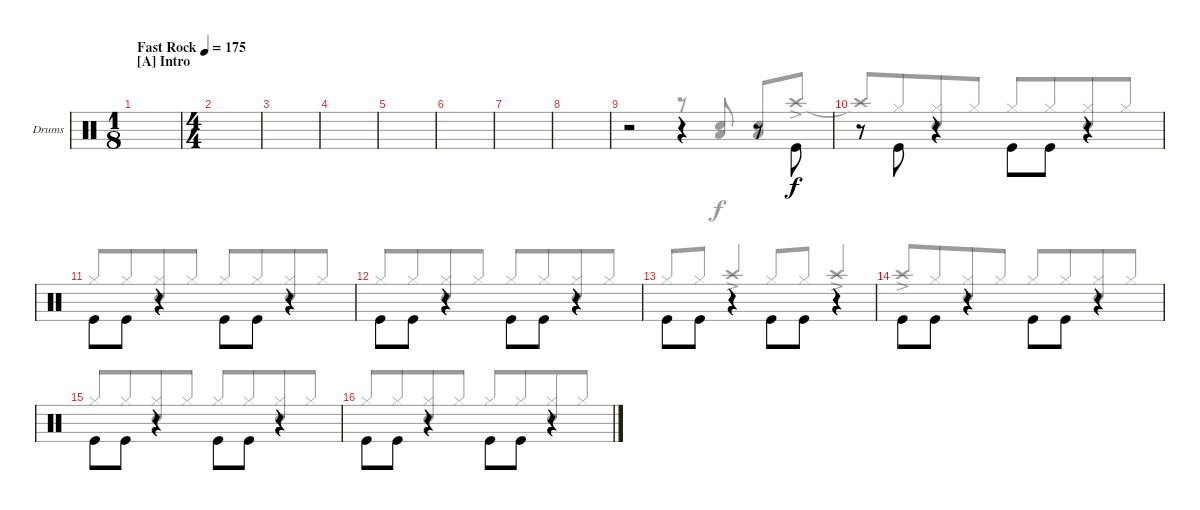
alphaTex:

\defaultSystemsLayout 4
\bracketExtendMode groupsimilarinstruments
\firstSystemTrackNameOrientation horizontal
\otherSystemsTrackNameOrientation horizontal
\track ("Drum" "Drums") {instrument percussion}
\staff {score}
\articulation defaults
\voice
\ts (1 8)
\section ("A" "Intro")
\tempo (175 "Fast Rock")
\clef neutral
\scale
1.05675
\ks c
|
\ts (4 4)
\scale
0.943253 |
\scale
1.02648 |
\scale
0.973518 |
\scale
1.02648 |
\scale
0.973518 |
\scale
1.02648 |
\scale
0.973518 |
\scale
1.02648 r.2 r.4 r.8 "Kick (hit)".8{beam invert} |
\scale
0.973518 r.8 "Kick (hit)".8{beam invert} r.4 "Kick (hit)".8{beam invert} "Kick (hit)".8 r.4 |
\scale
1.02648 "Kick (hit)".8{beam invert} "Kick (hit)".8 r.4 "Kick (hit)".8{beam invert} "Kick (hit)".8 r.4 |
\scale
0.973518 "Kick (hit)".8{beam invert} "Kick (hit)".8 r.4 "Kick (hit)".8{beam invert} "Kick (hit)".8 r.4 |
\scale
1.02648 "Kick (hit)".8{beam invert} "Kick (hit)".8 r.4 "Kick (hit)".8{beam invert} "Kick (hit)".8 r.4 |
\scale
0.973518 "Kick (hit)".8{beam invert} "Kick (hit)".8 r.4 "Kick (hit)".8{beam invert} "Kick (hit)".8 r.4 |
\scale
1.02648 "Kick (hit)".8{beam invert} "Kick (hit)".8 r.4 "Kick (hit)".8{beam invert} "Kick (hit)".8 r.4 |
\scale
0.973518 "Kick (hit)".8{beam invert} "Kick (hit)".8 r.4 "Kick (hit)".8{beam invert} "Kick (hit)".8 r.4
\voice
\clef neutral
\ottava regular
\simile none
\scale
1.05675
\ks c
|
\scale
0.943253 |
\scale
1.02648 |
\scale
0.973518 |
\scale
1.02648 |
\scale
0.973518 |
\scale
1.02648 |
\scale
0.973518 |
\scale
1.02648 r.2 r.8 ("Snare (hit) 2" "Low Tom (hit)").8{beam invert} ("Snare (hit) 2" "Low Tom (hit)").8{beam invert} "Crash high (hit)"{ac}.8 |
\scale
0.973518 "Crash high (hit)"{t}.8{beam invert beam merge} "Hi-Hat (closed)".8{beam merge} ("Hi-Hat (closed)" "Snare (hit) 2").8{beam merge} "Hi-Hat (closed)".8 "Hi-Hat (closed)".8{beam invert beam merge} "Hi-Hat (closed)".8{beam merge} ("Hi-Hat (closed)" "Snare (hit) 2").8{beam merge} "Hi-Hat (closed)".8 |
\scale
1.02648 "Hi-Hat (closed)".8{beam invert beam merge} "Hi-Hat (closed)".8{beam merge} ("Hi-Hat (closed)" "Snare (hit) 2").8{beam merge} "Hi-Hat (closed)".8 "Hi-Hat (closed)".8{beam invert beam merge} "Hi-Hat (closed)".8{beam merge} ("Hi-Hat (closed)" "Snare (hit) 2").8{beam merge} "Hi-Hat (closed)".8 |
\scale
0.973518 "Hi-Hat (closed)".8{beam invert beam merge} "Hi-Hat (closed)".8{beam merge} ("Hi-Hat (closed)" "Snare (hit) 2").8{beam merge} "Hi-Hat (closed)".8 "Hi-Hat (closed)".8{beam invert beam merge} "Hi-Hat (closed)".8{beam merge} ("Hi-Hat (closed)" "Snare (hit) 2").8{beam merge} "Hi-Hat (closed)".8 |
\scale
1.02648 "Hi-Hat (closed)".8{beam invert beam merge} "Hi-Hat (closed)".8{beam merge} "Crash high (hit)"{ac}.4{beam invert} "Hi-Hat (closed)".8{beam invert beam merge} "Hi-Hat (closed)".8{beam merge} "Crash high (hit)"{ac}.4{beam invert} |
\scale
0.973518 "Crash high (hit)"{ac}.8{beam invert beam merge} "Hi-Hat (closed)".8{beam merge} ("Hi-Hat (closed)" "Snare (hit) 2").8{beam merge} "Hi-Hat (closed)".8 "Hi-Hat (closed)".8{beam invert beam merge} "Hi-Hat (closed)".8{beam merge} ("Hi-Hat (closed)" "Snare (hit) 2").8{beam merge} "Hi-Hat (closed)".8 |
\scale
1.02648 "Hi-Hat (closed)".8{beam invert beam merge} "Hi-Hat (closed)".8{beam merge} ("Hi-Hat (closed)" "Snare (hit) 2").8{beam merge} "Hi-Hat (closed)".8 "Hi-Hat (closed)".8{beam invert beam merge} "Hi-Hat (closed)".8{beam merge} ("Hi-Hat (closed)" "Snare (hit) 2").8{beam merge} "Hi-Hat (closed)".8 |
\scale
0.973518 "Hi-Hat (closed)".8{beam invert beam merge} "Hi-Hat (closed)".8{beam merge} ("Hi-Hat (closed)" "Snare (hit) 2").8{beam merge} "Hi-Hat (closed)".8 "Hi-Hat (closed)".8{beam invert beam merge} "Hi-Hat (closed)".8{beam merge} ("Hi-Hat (closed)" "Snare (hit) 2").8{beam merge} "Hi-Hat (closed)".8
